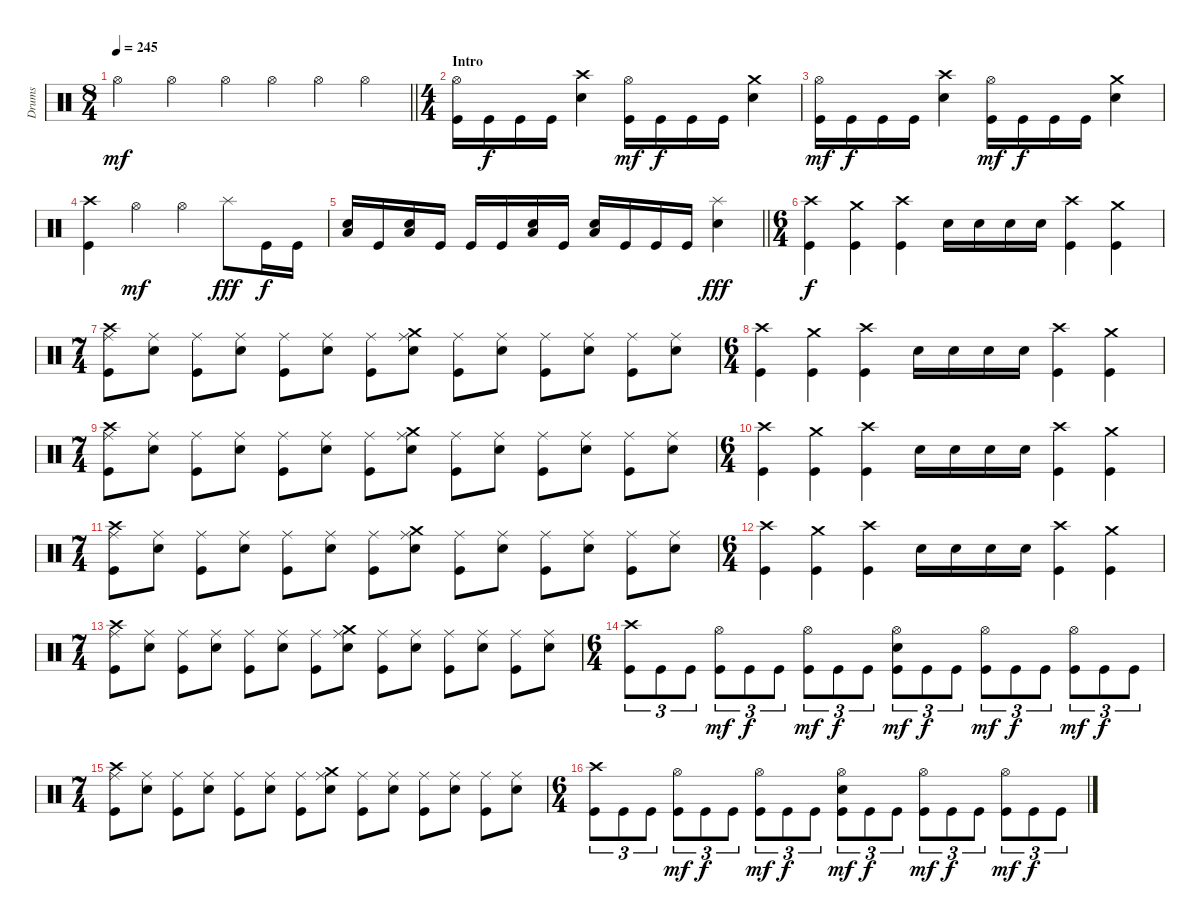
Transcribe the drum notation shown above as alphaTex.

\track ("Drums" "Drums") {instrument percussion}
\staff {score}
\articulation defaults
\ts (8 4)
\tempo 245
\clef neutral
\barLineRight lightlight
\ks c "Hi-Hat (open)".2{dy mf} "Hi-Hat (open)".2 "Hi-Hat (open)".4 "Hi-Hat (open)".4 "Hi-Hat (open)".4 "Hi-Hat (open)".4
|
\ts (4 4)
\section ("" "Intro")
("Hi-Hat (open)" "Kick (hit)").16 "Kick (hit)".16{dy f} "Kick (hit)".16 "Kick (hit)".16 ("Crash high (hit)" "Electric Snare (hit)").4 ("Hi-Hat (open)" "Kick (hit)").16{dy mf} "Kick (hit)".16{dy f} "Kick (hit)".16 "Kick (hit)".16 ("Crash medium (hit)" "Electric Snare (hit)").4 |
("Hi-Hat (open)" "Kick (hit)").16{dy mf} "Kick (hit)".16{dy f} "Kick (hit)".16 "Kick (hit)".16 ("Crash high (hit)" "Electric Snare (hit)").4 ("Hi-Hat (open)" "Kick (hit)").16{dy mf} "Kick (hit)".16{dy f} "Kick (hit)".16 "Kick (hit)".16 ("Crash medium (hit)" "Electric Snare (hit)").4 |
("Crash high (hit)" "Kick (hit)").4 "Hi-Hat (open)".4{dy mf} "Hi-Hat (open)".4 "Splash (hit)".8{dy fff} "Kick (hit)".16{dy f} "Kick (hit)".16 |
\barLineRight lightlight
("Low Tom (hit)" "Electric Snare (hit)").16 "Kick (hit)".16 ("Low Tom (hit)" "Electric Snare (hit)").16 "Kick (hit)".16 "Kick (hit)".16 "Kick (hit)".16 ("Low Tom (hit)" "Electric Snare (hit)").16 "Kick (hit)".16 ("Low Tom (hit)" "Electric Snare (hit)").16 "Kick (hit)".16 "Kick (hit)".16 "Kick (hit)".16 ("Splash (hit)" "Electric Snare (hit)").4{dy fff} |
\ts (6 4)
\section ("" "")
("Crash high (hit)" "Kick (hit)").4{dy f} ("Crash medium (hit)" "Kick (hit)").4 ("Crash high (hit)" "Kick (hit)").4 "Electric Snare (hit)".16 "Electric Snare (hit)".16 "Electric Snare (hit)".16 "Electric Snare (hit)".16 ("Crash high (hit)" "Kick (hit)").4 ("Crash medium (hit)" "Kick (hit)").4 |
\ts (7 4)
("Crash high (hit)" "Ride (middle)" "Kick (hit)").8 ("Ride (middle)" "Electric Snare (hit)").8 ("Ride (middle)" "Kick (hit)").8 ("Ride (middle)" "Electric Snare (hit)").8 ("Ride (middle)" "Kick (hit)").8 ("Ride (middle)" "Electric Snare (hit)").8 ("Ride (middle)" "Kick (hit)").8 ("Crash medium (hit)" "Ride (middle)" "Electric Snare (hit)").8 ("Ride (middle)" "Kick (hit)").8 ("Ride (middle)" "Electric Snare (hit)").8 ("Ride (middle)" "Kick (hit)").8 ("Ride (middle)" "Electric Snare (hit)").8 ("Ride (middle)" "Kick (hit)").8 ("Ride (middle)" "Electric Snare (hit)").8 |
\ts (6 4)
("Crash high (hit)" "Kick (hit)").4 ("Crash medium (hit)" "Kick (hit)").4 ("Crash high (hit)" "Kick (hit)").4 "Electric Snare (hit)".16 "Electric Snare (hit)".16 "Electric Snare (hit)".16 "Electric Snare (hit)".16 ("Crash high (hit)" "Kick (hit)").4 ("Crash medium (hit)" "Kick (hit)").4 |
\ts (7 4)
("Crash high (hit)" "Ride (middle)" "Kick (hit)").8 ("Ride (middle)" "Electric Snare (hit)").8 ("Ride (middle)" "Kick (hit)").8 ("Ride (middle)" "Electric Snare (hit)").8 ("Ride (middle)" "Kick (hit)").8 ("Ride (middle)" "Electric Snare (hit)").8 ("Ride (middle)" "Kick (hit)").8 ("Crash medium (hit)" "Ride (middle)" "Electric Snare (hit)").8 ("Ride (middle)" "Kick (hit)").8 ("Ride (middle)" "Electric Snare (hit)").8 ("Ride (middle)" "Kick (hit)").8 ("Ride (middle)" "Electric Snare (hit)").8 ("Ride (middle)" "Kick (hit)").8 ("Ride (middle)" "Electric Snare (hit)").8 |
\ts (6 4)
("Crash high (hit)" "Kick (hit)").4 ("Crash medium (hit)" "Kick (hit)").4 ("Crash high (hit)" "Kick (hit)").4 "Electric Snare (hit)".16 "Electric Snare (hit)".16 "Electric Snare (hit)".16 "Electric Snare (hit)".16 ("Crash high (hit)" "Kick (hit)").4 ("Crash medium (hit)" "Kick (hit)").4 |
\ts (7 4)
("Crash high (hit)" "Ride (middle)" "Kick (hit)").8 ("Ride (middle)" "Electric Snare (hit)").8 ("Ride (middle)" "Kick (hit)").8 ("Ride (middle)" "Electric Snare (hit)").8 ("Ride (middle)" "Kick (hit)").8 ("Ride (middle)" "Electric Snare (hit)").8 ("Ride (middle)" "Kick (hit)").8 ("Crash medium (hit)" "Ride (middle)" "Electric Snare (hit)").8 ("Ride (middle)" "Kick (hit)").8 ("Ride (middle)" "Electric Snare (hit)").8 ("Ride (middle)" "Kick (hit)").8 ("Ride (middle)" "Electric Snare (hit)").8 ("Ride (middle)" "Kick (hit)").8 ("Ride (middle)" "Electric Snare (hit)").8 |
\ts (6 4)
("Crash high (hit)" "Kick (hit)").4 ("Crash medium (hit)" "Kick (hit)").4 ("Crash high (hit)" "Kick (hit)").4 "Electric Snare (hit)".16 "Electric Snare (hit)".16 "Electric Snare (hit)".16 "Electric Snare (hit)".16 ("Crash high (hit)" "Kick (hit)").4 ("Crash medium (hit)" "Kick (hit)").4 |
\ts (7 4)
("Crash high (hit)" "Ride (middle)" "Kick (hit)").8 ("Ride (middle)" "Electric Snare (hit)").8 ("Ride (middle)" "Kick (hit)").8 ("Ride (middle)" "Electric Snare (hit)").8 ("Ride (middle)" "Kick (hit)").8 ("Ride (middle)" "Electric Snare (hit)").8 ("Ride (middle)" "Kick (hit)").8 ("Crash medium (hit)" "Ride (middle)" "Electric Snare (hit)").8 ("Ride (middle)" "Kick (hit)").8 ("Ride (middle)" "Electric Snare (hit)").8 ("Ride (middle)" "Kick (hit)").8 ("Ride (middle)" "Electric Snare (hit)").8 ("Ride (middle)" "Kick (hit)").8 ("Ride (middle)" "Electric Snare (hit)").8 |
\ts (6 4)
("Crash high (hit)" "Kick (hit)").8{tu (3 2)} "Kick (hit)".8{tu (3 2)} "Kick (hit)".8{tu (3 2)} ("Hi-Hat (open)" "Kick (hit)").8{tu (3 2) dy mf} "Kick (hit)".8{tu (3 2) dy f} "Kick (hit)".8{tu (3 2)} ("Hi-Hat (open)" "Kick (hit)").8{tu (3 2) dy mf} "Kick (hit)".8{tu (3 2) dy f} "Kick (hit)".8{tu (3 2)} ("Hi-Hat (open)" "Electric Snare (hit)" "Kick (hit)").8{tu (3 2) dy mf} "Kick (hit)".8{tu (3 2) dy f} "Kick (hit)".8{tu (3 2)} ("Hi-Hat (open)" "Kick (hit)").8{tu (3 2) dy mf} "Kick (hit)".8{tu (3 2) dy f} "Kick (hit)".8{tu (3 2)} ("Hi-Hat (open)" "Kick (hit)").8{tu (3 2) dy mf} "Kick (hit)".8{tu (3 2) dy f} "Kick (hit)".8{tu (3 2)} |
\ts (7 4)
("Crash high (hit)" "Ride (middle)" "Kick (hit)").8 ("Ride (middle)" "Electric Snare (hit)").8 ("Ride (middle)" "Kick (hit)").8 ("Ride (middle)" "Electric Snare (hit)").8 ("Ride (middle)" "Kick (hit)").8 ("Ride (middle)" "Electric Snare (hit)").8 ("Ride (middle)" "Kick (hit)").8 ("Crash medium (hit)" "Ride (middle)" "Electric Snare (hit)").8 ("Ride (middle)" "Kick (hit)").8 ("Ride (middle)" "Electric Snare (hit)").8 ("Ride (middle)" "Kick (hit)").8 ("Ride (middle)" "Electric Snare (hit)").8 ("Ride (middle)" "Kick (hit)").8 ("Ride (middle)" "Electric Snare (hit)").8 |
\ts (6 4)
("Crash high (hit)" "Kick (hit)").8{tu (3 2)} "Kick (hit)".8{tu (3 2)} "Kick (hit)".8{tu (3 2)} ("Hi-Hat (open)" "Kick (hit)").8{tu (3 2) dy mf} "Kick (hit)".8{tu (3 2) dy f} "Kick (hit)".8{tu (3 2)} ("Hi-Hat (open)" "Kick (hit)").8{tu (3 2) dy mf} "Kick (hit)".8{tu (3 2) dy f} "Kick (hit)".8{tu (3 2)} ("Hi-Hat (open)" "Electric Snare (hit)" "Kick (hit)").8{tu (3 2) dy mf} "Kick (hit)".8{tu (3 2) dy f} "Kick (hit)".8{tu (3 2)} ("Hi-Hat (open)" "Kick (hit)").8{tu (3 2) dy mf} "Kick (hit)".8{tu (3 2) dy f} "Kick (hit)".8{tu (3 2)} ("Hi-Hat (open)" "Kick (hit)").8{tu (3 2) dy mf} "Kick (hit)".8{tu (3 2) dy f} "Kick (hit)".8{tu (3 2)}
